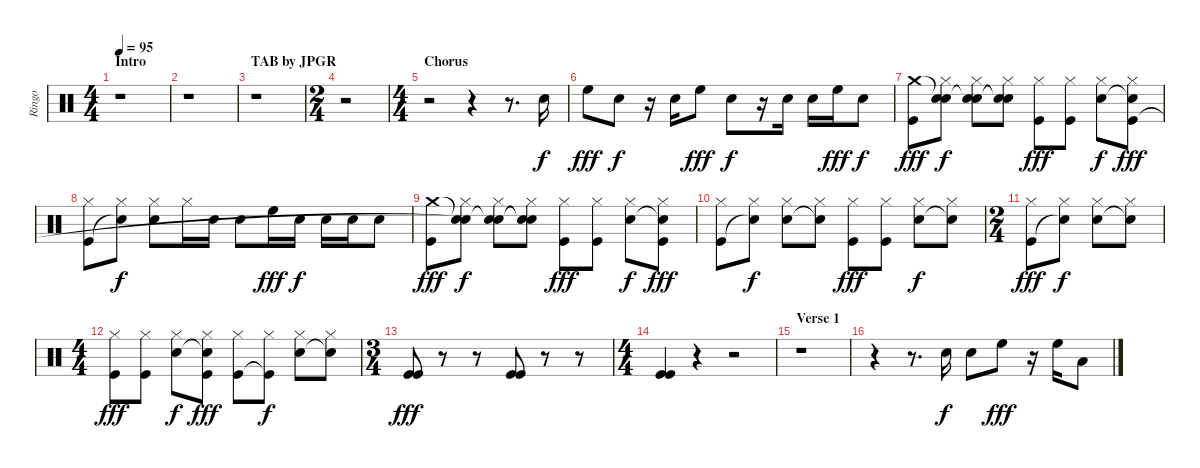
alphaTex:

\track ("Ringo" "Ringo") {instrument percussion}
\staff {score}
\articulation defaults
\ts (4 4)
\section ("" "Intro                              TAB by JPGR")
\tempo 95
\clef neutral
\ks c
r.1{dy f} |
r.1 |
r.1 |
\ts (2 4)
r.2 |
\ts (4 4)
\section ("" "Chorus")
r.2 r.4 r.8{d} "Snare (hit) 2".16 |
"High Floor Tom (hit)".8{dy fff} "Snare (hit) 2".8{dy f} r.16 "Snare (hit) 2".16 "High Floor Tom (hit)".8{dy fff} "Snare (hit) 2".8{dy f} r.16 "Snare (hit) 2".16 "Snare (hit) 2".16 "High Floor Tom (hit)".16{dy fff} "Snare (hit) 2".8{dy f} |
("Crash medium (hit)" "Kick (hit)").8{dy fff} ("Snare (hit)"{t} "Hi-Hat (closed)" "Snare (hit)").8{dy f} ("Snare (hit)"{t} "Hi-Hat (closed)" "Electric Snare (hit)").8 ("Snare (hit)"{t} "Hi-Hat (closed)" "Snare (hit)"{t}).8 ("Hi-Hat (closed)" "Kick (hit)").8{dy fff} ("Hi-Hat (closed)" "Kick (hit)").8 ("Hi-Hat (closed)" "Electric Snare (hit)").8{dy f} ("Hi-Hat (closed)" "Snare (hit)"{t} "Kick (hit)").8{dy fff} |
("Hi-Hat (closed)" "Kick (hit)").8 ("Hi-Hat (closed)" "Snare (hit)"{t}).8{dy f} ("Hi-Hat (closed)" "Electric Snare (hit)").8 "Hi-Hat (closed)".16 "Electric Snare (hit)".16 "Electric Snare (hit)".8 "High Floor Tom (hit)".16{dy fff} "Electric Snare (hit)".16{dy f} "Electric Snare (hit)".16 "Electric Snare (hit)".16 "Electric Snare (hit)".8 |
("Crash medium (hit)" "Kick (hit)").8{dy fff} ("Snare (hit)"{t} "Hi-Hat (closed)" "Snare (hit)"{t}).8{dy f} ("Snare (hit)"{t} "Hi-Hat (closed)" "Electric Snare (hit)").8 ("Snare (hit)"{t} "Hi-Hat (closed)" "Snare (hit)"{t}).8 ("Hi-Hat (closed)" "Kick (hit)").8{dy fff} ("Hi-Hat (closed)" "Kick (hit)").8 ("Hi-Hat (closed)" "Electric Snare (hit)").8{dy f} ("Hi-Hat (closed)" "Snare (hit)"{t} "Kick (hit)").8{dy fff} |
("Hi-Hat (closed)" "Kick (hit)").8 ("Hi-Hat (closed)" "Snare (hit)"{t}).8{dy f} ("Hi-Hat (closed)" "Electric Snare (hit)").8 ("Hi-Hat (closed)" "Snare (hit)"{t}).8 ("Hi-Hat (closed)" "Kick (hit)").8{dy fff} ("Hi-Hat (closed)" "Kick (hit)").8 ("Hi-Hat (closed)" "Electric Snare (hit)").8{dy f} ("Hi-Hat (closed)" "Snare (hit)"{t}).8 |
\ts (2 4)
("Hi-Hat (closed)" "Kick (hit)").8{dy fff} ("Hi-Hat (closed)" "Snare (hit)"{t}).8{dy f} ("Hi-Hat (closed)" "Electric Snare (hit)").8 ("Hi-Hat (closed)" "Snare (hit)"{t}).8 |
\ts (4 4)
("Hi-Hat (closed)" "Kick (hit)").8{dy fff} ("Hi-Hat (closed)" "Kick (hit)").8 ("Hi-Hat (closed)" "Electric Snare (hit)").8{dy f} ("Hi-Hat (closed)" "Snare (hit)"{t} "Kick (hit)").8{dy fff} ("Hi-Hat (closed)" "Kick (hit)").8 ("Hi-Hat (closed)" "Kick (hit)"{t}).8{dy f} ("Hi-Hat (closed)" "Electric Snare (hit)").8 ("Hi-Hat (closed)" "Snare (hit)"{t}).8 |
\ts (3 4)
("Kick (hit)" "Kick (hit)").8{dy fff} r.8 r.8 ("Kick (hit)" "Kick (hit)").8 r.8 r.8 |
\ts (4 4)
("Kick (hit)" "Kick (hit)").4 r.4 r.2 |
\section ("" "Verse 1")
r.1 |
r.4 r.8{d} "Electric Snare (hit)".16{dy f} "Electric Snare (hit)".8 "High Floor Tom (hit)".8{dy fff} r.16 "High Floor Tom (hit)".16 "Low Floor Tom (hit)".8
